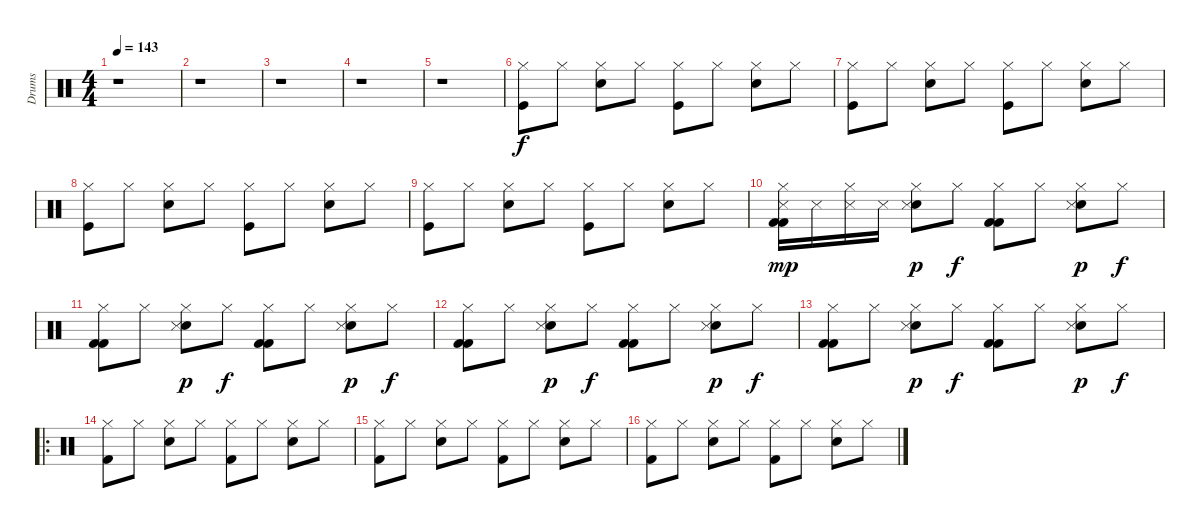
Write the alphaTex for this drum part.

\track ("Drums" "Drums") {instrument percussion}
\staff {score}
\articulation defaults
\ts (4 4)
\tempo 143
\clef neutral
\ks c
r.1{dy f} |
r.1 |
r.1 |
r.1 |
r.1 |
("Hi-Hat (closed)" "Kick (hit)").8 "Hi-Hat (closed)".8 ("Hi-Hat (closed)" "Snare (hit) 2").8 "Hi-Hat (closed)".8 ("Hi-Hat (closed)" "Kick (hit)").8 "Hi-Hat (closed)".8 ("Hi-Hat (closed)" "Snare (hit) 2").8 "Hi-Hat (closed)".8 |
("Hi-Hat (closed)" "Kick (hit)").8 "Hi-Hat (closed)".8 ("Hi-Hat (closed)" "Snare (hit) 2").8 "Hi-Hat (closed)".8 ("Hi-Hat (closed)" "Kick (hit)").8 "Hi-Hat (closed)".8 ("Hi-Hat (closed)" "Snare (hit) 2").8 "Hi-Hat (closed)".8 |
("Hi-Hat (closed)" "Kick (hit)").8 "Hi-Hat (closed)".8 ("Hi-Hat (closed)" "Snare (hit) 2").8 "Hi-Hat (closed)".8 ("Hi-Hat (closed)" "Kick (hit)").8 "Hi-Hat (closed)".8 ("Hi-Hat (closed)" "Snare (hit) 2").8 "Hi-Hat (closed)".8 |
("Hi-Hat (closed)" "Kick (hit)").8 "Hi-Hat (closed)".8 ("Hi-Hat (closed)" "Snare (hit) 2").8 "Hi-Hat (closed)".8 ("Hi-Hat (closed)" "Kick (hit)").8 "Hi-Hat (closed)".8 ("Hi-Hat (closed)" "Snare (hit) 2").8 "Hi-Hat (closed)".8 |
("Hi-Hat (closed)" "Metronome (hit)" "Kick (hit) 2" "Kick (hit) 2").16{dy mp} "Metronome (hit)".16 ("Hi-Hat (closed)" "Metronome (hit)").16 "Metronome (hit)".16 ("Hi-Hat (closed)" "Snare (hit) 2" "Metronome (hit)").8{dy p} "Hi-Hat (closed)".8{dy f} ("Hi-Hat (closed)" "Kick (hit) 2" "Kick (hit) 2").8 "Hi-Hat (closed)".8 ("Hi-Hat (closed)" "Snare (hit) 2" "Metronome (hit)").8{dy p} "Hi-Hat (closed)".8{dy f} |
("Hi-Hat (closed)" "Kick (hit) 2" "Kick (hit) 2").8 "Hi-Hat (closed)".8 ("Hi-Hat (closed)" "Snare (hit) 2" "Metronome (hit)").8{dy p} "Hi-Hat (closed)".8{dy f} ("Hi-Hat (closed)" "Kick (hit) 2" "Kick (hit) 2").8 "Hi-Hat (closed)".8 ("Hi-Hat (closed)" "Snare (hit) 2" "Metronome (hit)").8{dy p} "Hi-Hat (closed)".8{dy f} |
("Hi-Hat (closed)" "Kick (hit) 2" "Kick (hit) 2").8 "Hi-Hat (closed)".8 ("Hi-Hat (closed)" "Snare (hit) 2" "Metronome (hit)").8{dy p} "Hi-Hat (closed)".8{dy f} ("Hi-Hat (closed)" "Kick (hit) 2" "Kick (hit) 2").8 "Hi-Hat (closed)".8 ("Hi-Hat (closed)" "Snare (hit) 2" "Metronome (hit)").8{dy p} "Hi-Hat (closed)".8{dy f} |
("Hi-Hat (closed)" "Kick (hit) 2" "Kick (hit) 2").8 "Hi-Hat (closed)".8 ("Hi-Hat (closed)" "Snare (hit) 2" "Metronome (hit)").8{dy p} "Hi-Hat (closed)".8{dy f} ("Hi-Hat (closed)" "Kick (hit) 2" "Kick (hit) 2").8 "Hi-Hat (closed)".8 ("Hi-Hat (closed)" "Snare (hit) 2" "Metronome (hit)").8{dy p} "Hi-Hat (closed)".8{dy f} |
\ro
("Hi-Hat (closed)" "Kick (hit) 2").8 "Hi-Hat (closed)".8 ("Hi-Hat (closed)" "Electric Snare (hit)").8 "Hi-Hat (closed)".8 ("Hi-Hat (closed)" "Kick (hit) 2").8 "Hi-Hat (closed)".8 ("Hi-Hat (closed)" "Electric Snare (hit)").8 "Hi-Hat (closed)".8 |
("Hi-Hat (closed)" "Kick (hit) 2").8 "Hi-Hat (closed)".8 ("Hi-Hat (closed)" "Electric Snare (hit)").8 "Hi-Hat (closed)".8 ("Hi-Hat (closed)" "Kick (hit) 2").8 "Hi-Hat (closed)".8 ("Hi-Hat (closed)" "Electric Snare (hit)").8 "Hi-Hat (closed)".8 |
("Hi-Hat (closed)" "Kick (hit) 2").8 "Hi-Hat (closed)".8 ("Hi-Hat (closed)" "Electric Snare (hit)").8 "Hi-Hat (closed)".8 ("Hi-Hat (closed)" "Kick (hit) 2").8 "Hi-Hat (closed)".8 ("Hi-Hat (closed)" "Electric Snare (hit)").8 "Hi-Hat (closed)".8
